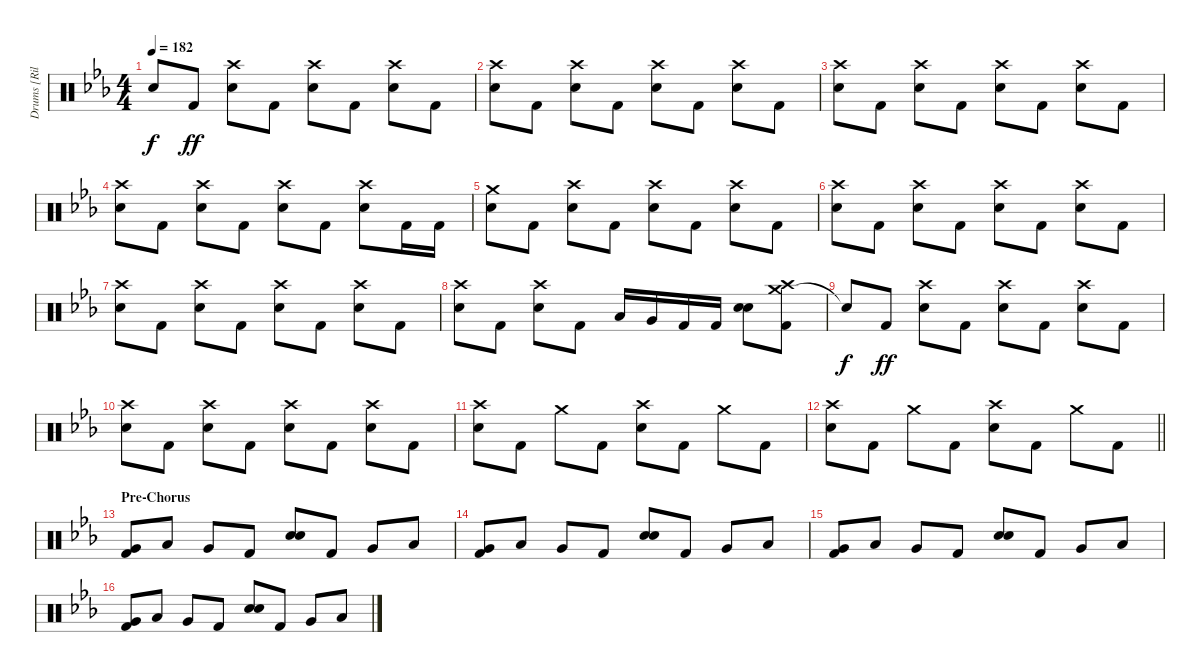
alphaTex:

\track ("Drums [Riley]" "Drums [Ril") {instrument percussion}
\staff {score}
\articulation defaults
\ts (4 4)
\tempo 182
\clef neutral
\ks eb "Snare (hit)"{t}.8{dy f} "Kick (hit) 2".8{dy ff}
("Crash high (hit)" "Electric Snare (hit)").8 "Kick (hit) 2".8 ("Crash high (hit)" "Electric Snare (hit)").8 "Kick (hit) 2".8 ("Crash high (hit)" "Electric Snare (hit)").8 "Kick (hit) 2".8 |
("Crash high (hit)" "Electric Snare (hit)").8 "Kick (hit) 2".8 ("Crash high (hit)" "Electric Snare (hit)").8 "Kick (hit) 2".8 ("Crash high (hit)" "Electric Snare (hit)").8 "Kick (hit) 2".8 ("Crash high (hit)" "Electric Snare (hit)").8 "Kick (hit) 2".8 |
("Crash high (hit)" "Electric Snare (hit)").8 "Kick (hit) 2".8 ("Crash high (hit)" "Electric Snare (hit)").8 "Kick (hit) 2".8 ("Crash high (hit)" "Electric Snare (hit)").8 "Kick (hit) 2".8 ("Crash high (hit)" "Electric Snare (hit)").8 "Kick (hit) 2".8 |
("Crash high (hit)" "Electric Snare (hit)").8 "Kick (hit) 2".8 ("Crash high (hit)" "Electric Snare (hit)").8 "Kick (hit) 2".8 ("Crash high (hit)" "Electric Snare (hit)").8 "Kick (hit) 2".8 ("Crash high (hit)" "Electric Snare (hit)").8 "Kick (hit) 2".16 "Kick (hit) 2".16 |
("Crash medium (hit)" "Electric Snare (hit)").8 "Kick (hit) 2".8 ("Crash high (hit)" "Electric Snare (hit)").8 "Kick (hit) 2".8 ("Crash high (hit)" "Electric Snare (hit)").8 "Kick (hit) 2".8 ("Crash high (hit)" "Electric Snare (hit)").8 "Kick (hit) 2".8 |
("Crash high (hit)" "Electric Snare (hit)").8 "Kick (hit) 2".8 ("Crash high (hit)" "Electric Snare (hit)").8 "Kick (hit) 2".8 ("Crash high (hit)" "Electric Snare (hit)").8 "Kick (hit) 2".8 ("Crash high (hit)" "Electric Snare (hit)").8 "Kick (hit) 2".8 |
("Crash high (hit)" "Electric Snare (hit)").8 "Kick (hit) 2".8 ("Crash high (hit)" "Electric Snare (hit)").8 "Kick (hit) 2".8 ("Crash high (hit)" "Electric Snare (hit)").8 "Kick (hit) 2".8 ("Crash high (hit)" "Electric Snare (hit)").8 "Kick (hit) 2".8 |
("Crash high (hit)" "Electric Snare (hit)").8 "Kick (hit) 2".8 ("Crash high (hit)" "Electric Snare (hit)").8 "Kick (hit) 2".8 "Low Tom (hit)".16 "Very Low Tom (hit)".16 "Kick (hit) 2".16 "Kick (hit) 2".16 ("Electric Snare (hit)" "Electric Snare (hit)").8{bu 60} ("Crash medium (hit)" "Crash high (hit)" "Kick (hit) 2").8 |
"Snare (hit)"{t}.8{dy f} "Kick (hit) 2".8{dy ff} ("Crash high (hit)" "Electric Snare (hit)").8 "Kick (hit) 2".8 ("Crash high (hit)" "Electric Snare (hit)").8 "Kick (hit) 2".8 ("Crash high (hit)" "Electric Snare (hit)").8 "Kick (hit) 2".8 |
("Crash high (hit)" "Electric Snare (hit)").8 "Kick (hit) 2".8 ("Crash high (hit)" "Electric Snare (hit)").8 "Kick (hit) 2".8 ("Crash high (hit)" "Electric Snare (hit)").8 "Kick (hit) 2".8 ("Crash high (hit)" "Electric Snare (hit)").8 "Kick (hit) 2".8 |
("Crash high (hit)" "Electric Snare (hit)").8 "Kick (hit) 2".8 "Crash medium (hit)".8 "Kick (hit) 2".8 ("Crash high (hit)" "Electric Snare (hit)").8 "Kick (hit) 2".8 "Crash medium (hit)".8 "Kick (hit) 2".8 |
\barLineRight lightlight
("Crash high (hit)" "Electric Snare (hit)").8 "Kick (hit) 2".8 "Crash medium (hit)".8 "Kick (hit) 2".8 ("Crash high (hit)" "Electric Snare (hit)").8 "Kick (hit) 2".8 "Crash medium (hit)".8 "Kick (hit) 2".8 |
\section ("" "Pre-Chorus")
("Very Low Tom (hit)" "Kick (hit) 2").8 "Low Tom (hit)".8 "Very Low Tom (hit)".8 "Kick (hit) 2".8 ("Electric Snare (hit)" "Electric Snare (hit)").8{bu 60} "Kick (hit) 2".8 "Very Low Tom (hit)".8 "Low Tom (hit)".8 |
("Very Low Tom (hit)" "Kick (hit) 2").8 "Low Tom (hit)".8 "Very Low Tom (hit)".8 "Kick (hit) 2".8 ("Electric Snare (hit)" "Electric Snare (hit)").8{bu 60} "Kick (hit) 2".8 "Very Low Tom (hit)".8 "Low Tom (hit)".8 |
("Very Low Tom (hit)" "Kick (hit) 2").8 "Low Tom (hit)".8 "Very Low Tom (hit)".8 "Kick (hit) 2".8 ("Electric Snare (hit)" "Electric Snare (hit)").8{bu 60} "Kick (hit) 2".8 "Very Low Tom (hit)".8 "Low Tom (hit)".8 |
("Very Low Tom (hit)" "Kick (hit) 2").8 "Low Tom (hit)".8 "Very Low Tom (hit)".8 "Kick (hit) 2".8 ("Electric Snare (hit)" "Electric Snare (hit)").8{bu 60} "Kick (hit) 2".8 "Very Low Tom (hit)".8 "Low Tom (hit)".8
